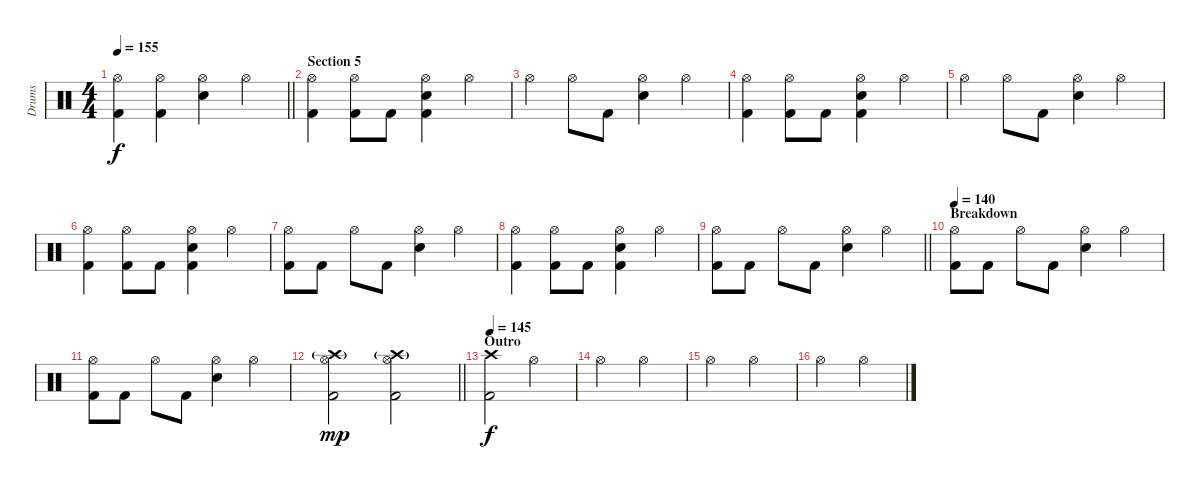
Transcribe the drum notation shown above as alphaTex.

\track ("Drums" "Drums") {instrument percussion}
\staff {score}
\articulation defaults
\ts (4 4)
\tempo 155
\clef neutral
\barLineRight lightlight
\ks c
("Hi-Hat (open)" "Kick (hit) 2").4{dy f} ("Hi-Hat (open)" "Kick (hit) 2").4 ("Hi-Hat (open)" "Snare (hit) 2").4 "Hi-Hat (open)".4 |
\section ("" "Section 5")
("Hi-Hat (open)" "Kick (hit) 2").4 ("Hi-Hat (open)" "Kick (hit) 2").8 "Kick (hit) 2".8 ("Hi-Hat (open)" "Snare (hit) 2" "Kick (hit) 2").4 "Hi-Hat (open)".4 |
"Hi-Hat (open)".4 "Hi-Hat (open)".8 "Kick (hit) 2".8 ("Hi-Hat (open)" "Snare (hit) 2").4 "Hi-Hat (open)".4 |
("Hi-Hat (open)" "Kick (hit) 2").4 ("Hi-Hat (open)" "Kick (hit) 2").8 "Kick (hit) 2".8 ("Hi-Hat (open)" "Snare (hit) 2" "Kick (hit) 2").4 "Hi-Hat (open)".4 |
"Hi-Hat (open)".4 "Hi-Hat (open)".8 "Kick (hit) 2".8 ("Hi-Hat (open)" "Snare (hit) 2").4 "Hi-Hat (open)".4 |
("Hi-Hat (open)" "Kick (hit) 2").4 ("Hi-Hat (open)" "Kick (hit) 2").8 "Kick (hit) 2".8 ("Hi-Hat (open)" "Snare (hit) 2" "Kick (hit) 2").4 "Hi-Hat (open)".4 |
("Hi-Hat (open)" "Kick (hit) 2").8 "Kick (hit) 2".8 "Hi-Hat (open)".8 "Kick (hit) 2".8 ("Hi-Hat (open)" "Snare (hit) 2").4 "Hi-Hat (open)".4 |
("Hi-Hat (open)" "Kick (hit) 2").4 ("Hi-Hat (open)" "Kick (hit) 2").8 "Kick (hit) 2".8 ("Hi-Hat (open)" "Snare (hit) 2" "Kick (hit) 2").4 "Hi-Hat (open)".4 |
\barLineRight lightlight
("Hi-Hat (open)" "Kick (hit) 2").8 "Kick (hit) 2".8 "Hi-Hat (open)".8 "Kick (hit) 2".8 ("Hi-Hat (open)" "Snare (hit) 2").4 "Hi-Hat (open)".4 |
\section ("" "Breakdown")
\tempo 140
("Hi-Hat (open)" "Kick (hit) 2").8 "Kick (hit) 2".8 "Hi-Hat (open)".8 "Kick (hit) 2".8 ("Hi-Hat (open)" "Snare (hit) 2").4 "Hi-Hat (open)".4 |
("Hi-Hat (open)" "Kick (hit) 2").8 "Kick (hit) 2".8 "Hi-Hat (open)".8 "Kick (hit) 2".8 ("Hi-Hat (open)" "Snare (hit) 2").4 "Hi-Hat (open)".4 |
\barLineRight lightlight
("Hi-Hat (open)" "Crash high (hit)"{g} "Kick (hit) 2").2{dy mp} ("Hi-Hat (open)" "Crash high (hit)"{g} "Kick (hit) 2").2 |
\section ("" "Outro")
\tempo 145
("Crash high (hit)" "Kick (hit) 2").2{dy f} "Hi-Hat (open)".2{volume 4} |
"Hi-Hat (open)".2 "Hi-Hat (open)".2 |
"Hi-Hat (open)".2 "Hi-Hat (open)".2 |
"Hi-Hat (open)".2 "Hi-Hat (open)".2
